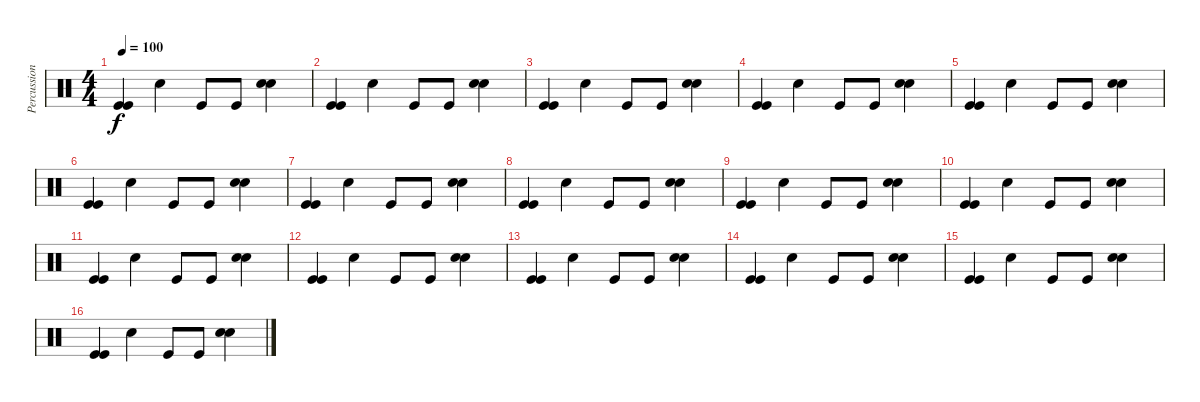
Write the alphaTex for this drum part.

\track ("Percussion" "Percussion") {instrument percussion}
\staff {score}
\articulation defaults
\ts (4 4)
\tempo 100
\clef neutral
\ks c
("Kick (hit)" "Kick (hit)").4{dy f} "Snare (hit) 2".4 "Kick (hit)".8 "Kick (hit)".8 ("Snare (hit) 2" "Snare (hit) 2").4 |
("Kick (hit)" "Kick (hit)").4 "Snare (hit) 2".4 "Kick (hit)".8 "Kick (hit)".8 ("Snare (hit) 2" "Snare (hit) 2").4 |
("Kick (hit)" "Kick (hit)").4 "Snare (hit) 2".4 "Kick (hit)".8 "Kick (hit)".8 ("Snare (hit) 2" "Snare (hit) 2").4 |
("Kick (hit)" "Kick (hit)").4 "Snare (hit) 2".4 "Kick (hit)".8 "Kick (hit)".8 ("Snare (hit) 2" "Snare (hit) 2").4 |
("Kick (hit)" "Kick (hit)").4 "Snare (hit) 2".4 "Kick (hit)".8 "Kick (hit)".8 ("Snare (hit) 2" "Snare (hit) 2").4 |
("Kick (hit)" "Kick (hit)").4 "Snare (hit) 2".4 "Kick (hit)".8 "Kick (hit)".8 ("Snare (hit) 2" "Snare (hit) 2").4 |
("Kick (hit)" "Kick (hit)").4 "Snare (hit) 2".4 "Kick (hit)".8 "Kick (hit)".8 ("Snare (hit) 2" "Snare (hit) 2").4 |
("Kick (hit)" "Kick (hit)").4 "Snare (hit) 2".4 "Kick (hit)".8 "Kick (hit)".8 ("Snare (hit) 2" "Snare (hit) 2").4 |
("Kick (hit)" "Kick (hit)").4 "Snare (hit) 2".4 "Kick (hit)".8 "Kick (hit)".8 ("Snare (hit) 2" "Snare (hit) 2").4 |
("Kick (hit)" "Kick (hit)").4 "Snare (hit) 2".4 "Kick (hit)".8 "Kick (hit)".8 ("Snare (hit) 2" "Snare (hit) 2").4 |
("Kick (hit)" "Kick (hit)").4 "Snare (hit) 2".4 "Kick (hit)".8 "Kick (hit)".8 ("Snare (hit) 2" "Snare (hit) 2").4 |
("Kick (hit)" "Kick (hit)").4 "Snare (hit) 2".4 "Kick (hit)".8 "Kick (hit)".8 ("Snare (hit) 2" "Snare (hit) 2").4 |
("Kick (hit)" "Kick (hit)").4 "Snare (hit) 2".4 "Kick (hit)".8 "Kick (hit)".8 ("Snare (hit) 2" "Snare (hit) 2").4 |
("Kick (hit)" "Kick (hit)").4 "Snare (hit) 2".4 "Kick (hit)".8 "Kick (hit)".8 ("Snare (hit) 2" "Snare (hit) 2").4 |
("Kick (hit)" "Kick (hit)").4 "Snare (hit) 2".4 "Kick (hit)".8 "Kick (hit)".8 ("Snare (hit) 2" "Snare (hit) 2").4 |
("Kick (hit)" "Kick (hit)").4 "Snare (hit) 2".4 "Kick (hit)".8 "Kick (hit)".8 ("Snare (hit) 2" "Snare (hit) 2").4
